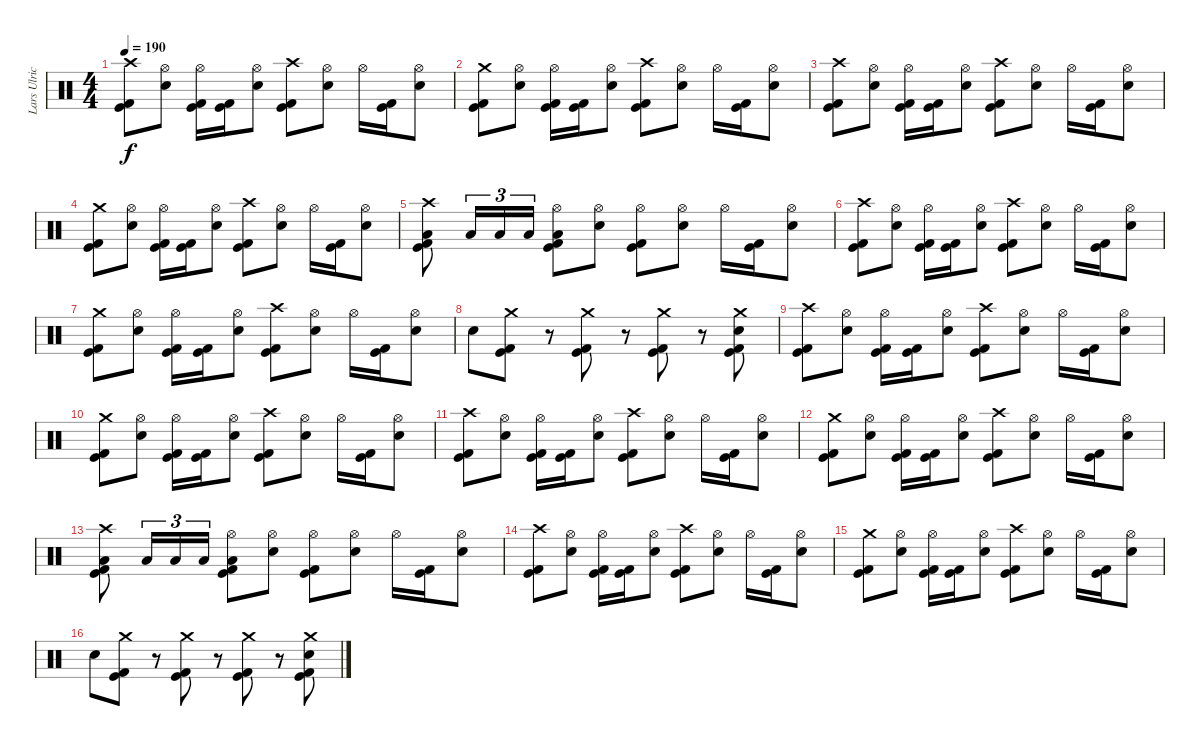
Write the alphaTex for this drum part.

\track ("Lars Ulrich" "Lars Ulric") {instrument percussion}
\staff {score}
\articulation defaults
\ts (4 4)
\tempo 190
\clef neutral
\ks c
("Crash high (hit)" "Kick (hit) 2" "Kick (hit)").8{dy f} ("Hi-Hat (open)" "Electric Snare (hit)").8 ("Hi-Hat (open)" "Kick (hit) 2" "Kick (hit)").16 ("Kick (hit) 2" "Kick (hit)").16 ("Hi-Hat (open)" "Electric Snare (hit)").8 ("Crash high (hit)" "Kick (hit) 2" "Kick (hit)").8 ("Hi-Hat (open)" "Electric Snare (hit)").8 "Hi-Hat (open)".16 ("Kick (hit) 2" "Kick (hit)").16 ("Hi-Hat (open)" "Electric Snare (hit)").8 |
("Crash medium (hit)" "Kick (hit) 2" "Kick (hit)").8 ("Hi-Hat (open)" "Electric Snare (hit)").8 ("Hi-Hat (open)" "Kick (hit) 2" "Kick (hit)").16 ("Kick (hit) 2" "Kick (hit)").16 ("Hi-Hat (open)" "Electric Snare (hit)").8 ("Crash high (hit)" "Kick (hit) 2" "Kick (hit)").8 ("Hi-Hat (open)" "Electric Snare (hit)").8 "Hi-Hat (open)".16 ("Kick (hit) 2" "Kick (hit)").16 ("Hi-Hat (open)" "Electric Snare (hit)").8 |
("Crash high (hit)" "Kick (hit) 2" "Kick (hit)").8 ("Hi-Hat (open)" "Electric Snare (hit)").8 ("Hi-Hat (open)" "Kick (hit) 2" "Kick (hit)").16 ("Kick (hit) 2" "Kick (hit)").16 ("Hi-Hat (open)" "Electric Snare (hit)").8 ("Crash high (hit)" "Kick (hit) 2" "Kick (hit)").8 ("Hi-Hat (open)" "Electric Snare (hit)").8 "Hi-Hat (open)".16 ("Kick (hit) 2" "Kick (hit)").16 ("Hi-Hat (open)" "Electric Snare (hit)").8 |
("Crash medium (hit)" "Kick (hit) 2" "Kick (hit)").8 ("Hi-Hat (open)" "Electric Snare (hit)").8 ("Hi-Hat (open)" "Kick (hit) 2" "Kick (hit)").16 ("Kick (hit) 2" "Kick (hit)").16 ("Hi-Hat (open)" "Electric Snare (hit)").8 ("Crash high (hit)" "Kick (hit) 2" "Kick (hit)").8 ("Hi-Hat (open)" "Electric Snare (hit)").8 "Hi-Hat (open)".16 ("Kick (hit) 2" "Kick (hit)").16 ("Hi-Hat (open)" "Electric Snare (hit)").8 |
("Crash high (hit)" "Low Tom (hit)" "Kick (hit) 2" "Kick (hit)").8 "Low Tom (hit)".16{tu (3 2)} "Low Tom (hit)".16{tu (3 2)} "Low Tom (hit)".16{tu (3 2)} ("Hi-Hat (open)" "Low Tom (hit)" "Kick (hit) 2" "Kick (hit)").8 ("Hi-Hat (open)" "Electric Snare (hit)").8 ("Hi-Hat (open)" "Kick (hit) 2" "Kick (hit)").8 ("Hi-Hat (open)" "Electric Snare (hit)").8 "Hi-Hat (open)".16 ("Kick (hit) 2" "Kick (hit)").16 ("Hi-Hat (open)" "Electric Snare (hit)").8 |
("Crash high (hit)" "Kick (hit) 2" "Kick (hit)").8 ("Hi-Hat (open)" "Electric Snare (hit)").8 ("Hi-Hat (open)" "Kick (hit) 2" "Kick (hit)").16 ("Kick (hit) 2" "Kick (hit)").16 ("Hi-Hat (open)" "Electric Snare (hit)").8 ("Crash high (hit)" "Kick (hit) 2" "Kick (hit)").8 ("Hi-Hat (open)" "Electric Snare (hit)").8 "Hi-Hat (open)".16 ("Kick (hit) 2" "Kick (hit)").16 ("Hi-Hat (open)" "Electric Snare (hit)").8 |
("Crash medium (hit)" "Kick (hit) 2" "Kick (hit)").8 ("Hi-Hat (open)" "Electric Snare (hit)").8 ("Hi-Hat (open)" "Kick (hit) 2" "Kick (hit)").16 ("Kick (hit) 2" "Kick (hit)").16 ("Hi-Hat (open)" "Electric Snare (hit)").8 ("Crash high (hit)" "Kick (hit) 2" "Kick (hit)").8 ("Hi-Hat (open)" "Electric Snare (hit)").8 "Hi-Hat (open)".16 ("Kick (hit) 2" "Kick (hit)").16 ("Hi-Hat (open)" "Electric Snare (hit)").8 |
"Electric Snare (hit)".8 ("Crash medium (hit)" "Kick (hit) 2" "Kick (hit)").8 r.8 ("Crash medium (hit)" "Kick (hit) 2" "Kick (hit)").8 r.8 ("Crash medium (hit)" "Kick (hit) 2" "Kick (hit)").8 r.8 ("Crash medium (hit)" "Electric Snare (hit)" "Kick (hit) 2" "Kick (hit)").8 |
("Crash high (hit)" "Kick (hit) 2" "Kick (hit)").8 ("Hi-Hat (open)" "Electric Snare (hit)").8 ("Hi-Hat (open)" "Kick (hit) 2" "Kick (hit)").16 ("Kick (hit) 2" "Kick (hit)").16 ("Hi-Hat (open)" "Electric Snare (hit)").8 ("Crash high (hit)" "Kick (hit) 2" "Kick (hit)").8 ("Hi-Hat (open)" "Electric Snare (hit)").8 "Hi-Hat (open)".16 ("Kick (hit) 2" "Kick (hit)").16 ("Hi-Hat (open)" "Electric Snare (hit)").8 |
("Crash medium (hit)" "Kick (hit) 2" "Kick (hit)").8 ("Hi-Hat (open)" "Electric Snare (hit)").8 ("Hi-Hat (open)" "Kick (hit) 2" "Kick (hit)").16 ("Kick (hit) 2" "Kick (hit)").16 ("Hi-Hat (open)" "Electric Snare (hit)").8 ("Crash high (hit)" "Kick (hit) 2" "Kick (hit)").8 ("Hi-Hat (open)" "Electric Snare (hit)").8 "Hi-Hat (open)".16 ("Kick (hit) 2" "Kick (hit)").16 ("Hi-Hat (open)" "Electric Snare (hit)").8 |
("Crash high (hit)" "Kick (hit) 2" "Kick (hit)").8 ("Hi-Hat (open)" "Electric Snare (hit)").8 ("Hi-Hat (open)" "Kick (hit) 2" "Kick (hit)").16 ("Kick (hit) 2" "Kick (hit)").16 ("Hi-Hat (open)" "Electric Snare (hit)").8 ("Crash high (hit)" "Kick (hit) 2" "Kick (hit)").8 ("Hi-Hat (open)" "Electric Snare (hit)").8 "Hi-Hat (open)".16 ("Kick (hit) 2" "Kick (hit)").16 ("Hi-Hat (open)" "Electric Snare (hit)").8 |
("Crash medium (hit)" "Kick (hit) 2" "Kick (hit)").8 ("Hi-Hat (open)" "Electric Snare (hit)").8 ("Hi-Hat (open)" "Kick (hit) 2" "Kick (hit)").16 ("Kick (hit) 2" "Kick (hit)").16 ("Hi-Hat (open)" "Electric Snare (hit)").8 ("Crash high (hit)" "Kick (hit) 2" "Kick (hit)").8 ("Hi-Hat (open)" "Electric Snare (hit)").8 "Hi-Hat (open)".16 ("Kick (hit) 2" "Kick (hit)").16 ("Hi-Hat (open)" "Electric Snare (hit)").8 |
("Crash high (hit)" "Low Tom (hit)" "Kick (hit) 2" "Kick (hit)").8 "Low Tom (hit)".16{tu (3 2)} "Low Tom (hit)".16{tu (3 2)} "Low Tom (hit)".16{tu (3 2)} ("Hi-Hat (open)" "Low Tom (hit)" "Kick (hit) 2" "Kick (hit)").8 ("Hi-Hat (open)" "Electric Snare (hit)").8 ("Hi-Hat (open)" "Kick (hit) 2" "Kick (hit)").8 ("Hi-Hat (open)" "Electric Snare (hit)").8 "Hi-Hat (open)".16 ("Kick (hit) 2" "Kick (hit)").16 ("Hi-Hat (open)" "Electric Snare (hit)").8 |
("Crash high (hit)" "Kick (hit) 2" "Kick (hit)").8 ("Hi-Hat (open)" "Electric Snare (hit)").8 ("Hi-Hat (open)" "Kick (hit) 2" "Kick (hit)").16 ("Kick (hit) 2" "Kick (hit)").16 ("Hi-Hat (open)" "Electric Snare (hit)").8 ("Crash high (hit)" "Kick (hit) 2" "Kick (hit)").8 ("Hi-Hat (open)" "Electric Snare (hit)").8 "Hi-Hat (open)".16 ("Kick (hit) 2" "Kick (hit)").16 ("Hi-Hat (open)" "Electric Snare (hit)").8 |
("Crash medium (hit)" "Kick (hit) 2" "Kick (hit)").8 ("Hi-Hat (open)" "Electric Snare (hit)").8 ("Hi-Hat (open)" "Kick (hit) 2" "Kick (hit)").16 ("Kick (hit) 2" "Kick (hit)").16 ("Hi-Hat (open)" "Electric Snare (hit)").8 ("Crash high (hit)" "Kick (hit) 2" "Kick (hit)").8 ("Hi-Hat (open)" "Electric Snare (hit)").8 "Hi-Hat (open)".16 ("Kick (hit) 2" "Kick (hit)").16 ("Hi-Hat (open)" "Electric Snare (hit)").8 |
"Electric Snare (hit)".8 ("Crash medium (hit)" "Kick (hit) 2" "Kick (hit)").8 r.8 ("Crash medium (hit)" "Kick (hit) 2" "Kick (hit)").8 r.8 ("Crash medium (hit)" "Kick (hit) 2" "Kick (hit)").8 r.8 ("Crash medium (hit)" "Electric Snare (hit)" "Kick (hit) 2" "Kick (hit)").8
